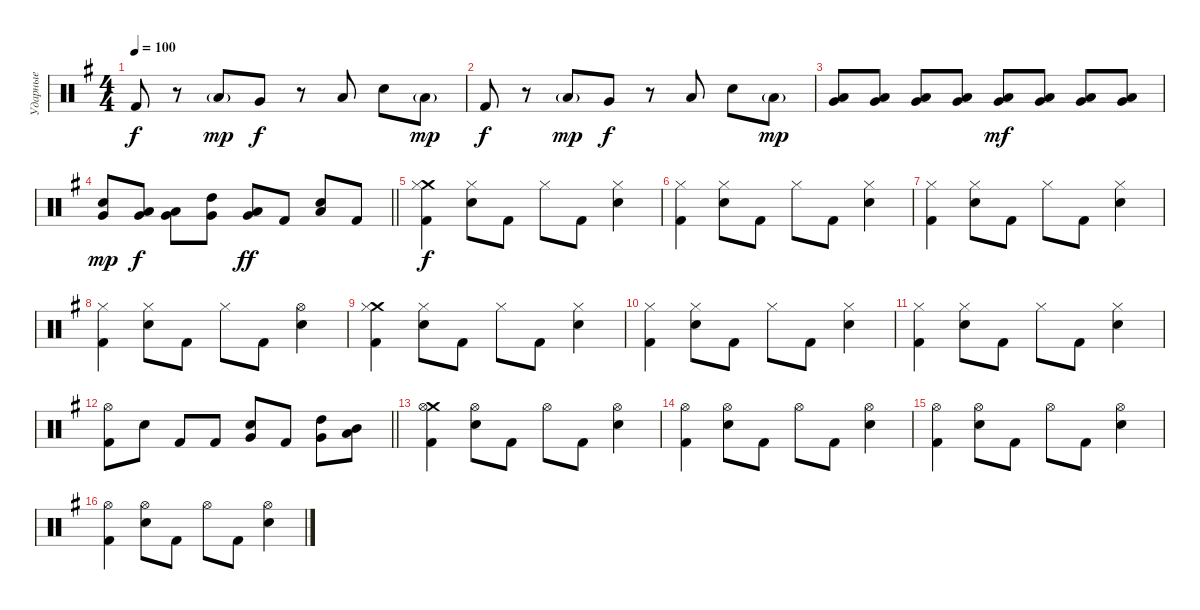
\track ("Ударные" "Ударные") {instrument percussion}
\staff {score}
\articulation defaults
\ts (4 4)
\tempo 100
\clef neutral
\ks eminor "Kick (hit) 2".8{dy f}
r.8 "Low Tom (hit)"{g}.8{dy mp} "Very Low Tom (hit)".8{dy f} r.8 "Low Floor Tom (hit)".8 "Electric Snare (hit)".8 "Low Floor Tom (hit)"{g}.8{dy mp} |
"Kick (hit) 2".8{dy f} r.8 "Low Tom (hit)"{g}.8{dy mp} "Very Low Tom (hit)".8{dy f} r.8 "Low Floor Tom (hit)".8 "Electric Snare (hit)".8 "Low Floor Tom (hit)"{g}.8{dy mp} |
("Low Floor Tom (hit)" "Very Low Tom (hit)").8 ("Low Floor Tom (hit)" "Very Low Tom (hit)").8 ("Low Floor Tom (hit)" "Very Low Tom (hit)").8 ("Low Floor Tom (hit)" "Very Low Tom (hit)").8 ("Low Floor Tom (hit)" "Very Low Tom (hit)").8{dy mf} ("Low Floor Tom (hit)" "Very Low Tom (hit)").8 ("Low Floor Tom (hit)" "Very Low Tom (hit)").8 ("Low Floor Tom (hit)" "Very Low Tom (hit)").8 |
\barLineRight lightlight
("Electric Snare (hit)" "Very Low Tom (hit)").8{dy mp} ("Low Floor Tom (hit)" "Very Low Tom (hit)").8{dy f} ("Low Floor Tom (hit)" "Very Low Tom (hit)").8 ("High Tom (hit)" "Very Low Tom (hit)").8 ("Low Floor Tom (hit)" "Very Low Tom (hit)").8{dy ff} "Kick (hit) 2".8 ("Low Floor Tom (hit)" "Electric Snare (hit)").8 "Kick (hit) 2".8 |
\section ("" "")
("Crash medium (hit)" "Hi-Hat (closed)" "Kick (hit) 2").4{dy f} ("Hi-Hat (closed)" "Electric Snare (hit)").8 "Kick (hit) 2".8 "Hi-Hat (closed)".8 "Kick (hit) 2".8 ("Hi-Hat (closed)" "Electric Snare (hit)").4 |
("Hi-Hat (closed)" "Kick (hit) 2").4 ("Hi-Hat (closed)" "Electric Snare (hit)").8 "Kick (hit) 2".8 "Hi-Hat (closed)".8 "Kick (hit) 2".8 ("Hi-Hat (closed)" "Electric Snare (hit)").4 |
("Hi-Hat (closed)" "Kick (hit) 2").4 ("Hi-Hat (closed)" "Electric Snare (hit)").8 "Kick (hit) 2".8 "Hi-Hat (closed)".8 "Kick (hit) 2".8 ("Hi-Hat (closed)" "Electric Snare (hit)").4 |
("Hi-Hat (closed)" "Kick (hit) 2").4 ("Hi-Hat (closed)" "Electric Snare (hit)").8 "Kick (hit) 2".8 "Hi-Hat (closed)".8 "Kick (hit) 2".8 ("Hi-Hat (open)" "Electric Snare (hit)").4 |
("Crash medium (hit)" "Hi-Hat (closed)" "Kick (hit) 2").4 ("Hi-Hat (closed)" "Electric Snare (hit)").8 "Kick (hit) 2".8 "Hi-Hat (closed)".8 "Kick (hit) 2".8 ("Hi-Hat (closed)" "Electric Snare (hit)").4 |
("Hi-Hat (closed)" "Kick (hit) 2").4 ("Hi-Hat (closed)" "Electric Snare (hit)").8 "Kick (hit) 2".8 "Hi-Hat (closed)".8 "Kick (hit) 2".8 ("Hi-Hat (closed)" "Electric Snare (hit)").4 |
("Hi-Hat (closed)" "Kick (hit) 2").4 ("Hi-Hat (closed)" "Electric Snare (hit)").8 "Kick (hit) 2".8 "Hi-Hat (closed)".8 "Kick (hit) 2".8 ("Hi-Hat (closed)" "Electric Snare (hit)").4 |
\barLineRight lightlight
("Hi-Hat (open)" "Kick (hit) 2").8 "Electric Snare (hit)".8 "Kick (hit) 2".8 "Kick (hit) 2".8 ("Very Low Tom (hit)" "Electric Snare (hit)").8 "Kick (hit) 2".8 ("High Tom (hit)" "Very Low Tom (hit)").8 ("Mid Tom (hit)" "Low Floor Tom (hit)").8 |
\section ("" "")
("Crash medium (hit)" "Hi-Hat (open)" "Kick (hit) 2").4 ("Hi-Hat (open)" "Electric Snare (hit)").8 "Kick (hit) 2".8 "Hi-Hat (open)".8 "Kick (hit) 2".8 ("Hi-Hat (open)" "Electric Snare (hit)").4 |
("Hi-Hat (open)" "Kick (hit) 2").4 ("Hi-Hat (open)" "Electric Snare (hit)").8 "Kick (hit) 2".8 "Hi-Hat (open)".8 "Kick (hit) 2".8 ("Hi-Hat (open)" "Electric Snare (hit)").4 |
("Hi-Hat (open)" "Kick (hit) 2").4 ("Hi-Hat (open)" "Electric Snare (hit)").8 "Kick (hit) 2".8 "Hi-Hat (open)".8 "Kick (hit) 2".8 ("Hi-Hat (open)" "Electric Snare (hit)").4 |
("Hi-Hat (open)" "Kick (hit) 2").4 ("Hi-Hat (open)" "Electric Snare (hit)").8 "Kick (hit) 2".8 "Hi-Hat (open)".8 "Kick (hit) 2".8 ("Hi-Hat (open)" "Electric Snare (hit)").4
